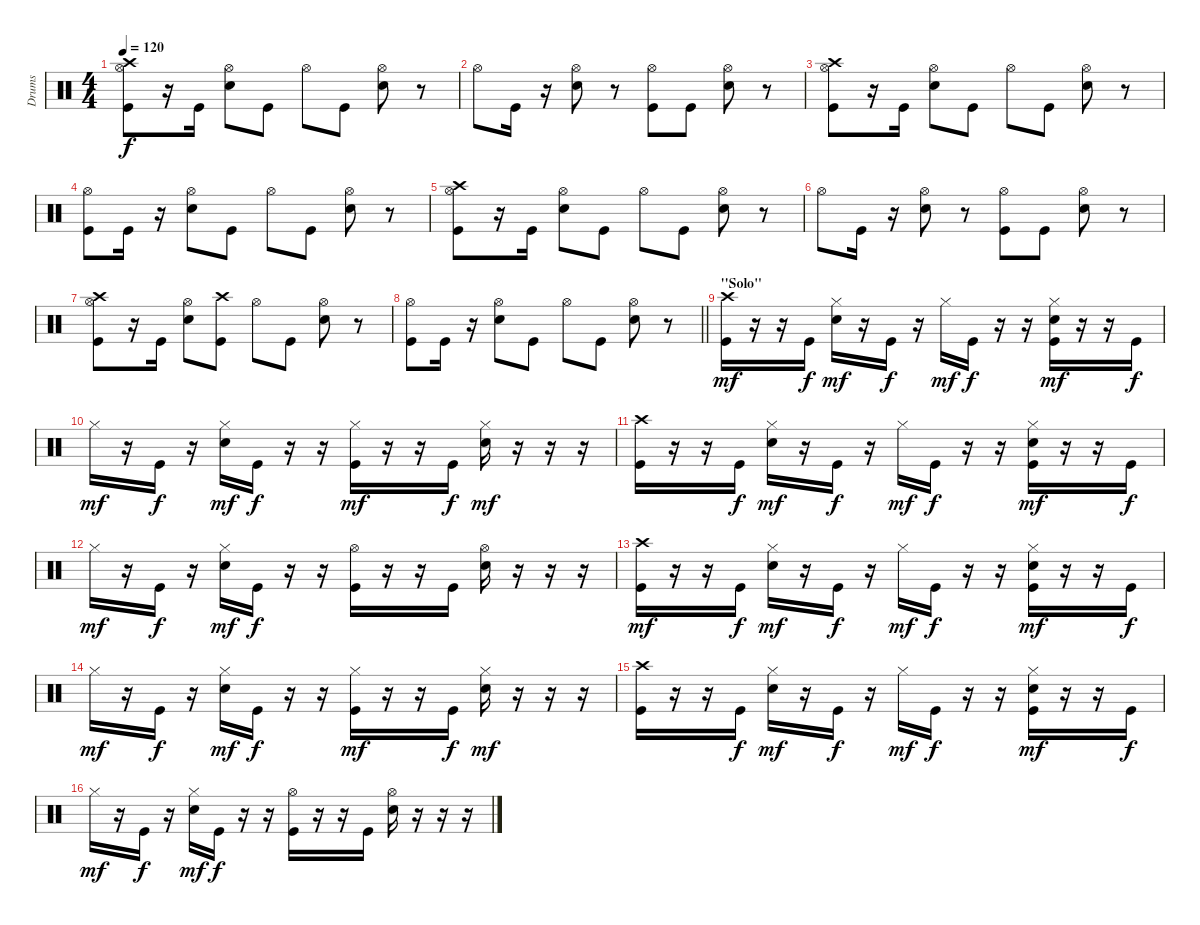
\track ("Drums" "Drums") {instrument percussion}
\staff {score}
\articulation defaults
\ts (4 4)
\tempo 120
\clef neutral
\ks c
("Kick (hit)" "Hi-Hat (open)" "Crash high (hit)").8{dy f} r.16 "Kick (hit)".16 ("Snare (hit) 2" "Hi-Hat (open)").8 "Kick (hit)".8 "Hi-Hat (open)".8 "Kick (hit)".8 ("Snare (hit) 2" "Hi-Hat (open)").8 r.8 |
"Hi-Hat (open)".8 "Kick (hit)".16 r.16 ("Snare (hit) 2" "Hi-Hat (open)").8 r.8 ("Kick (hit)" "Hi-Hat (open)").8 "Kick (hit)".8 ("Snare (hit) 2" "Hi-Hat (open)").8 r.8 |
("Kick (hit)" "Hi-Hat (open)" "Crash high (hit)").8 r.16 "Kick (hit)".16 ("Snare (hit) 2" "Hi-Hat (open)").8 "Kick (hit)".8 "Hi-Hat (open)".8 "Kick (hit)".8 ("Snare (hit) 2" "Hi-Hat (open)").8 r.8 |
("Kick (hit)" "Hi-Hat (open)").8 "Kick (hit)".16 r.16 ("Snare (hit) 2" "Hi-Hat (open)").8 "Kick (hit)".8 "Hi-Hat (open)".8 "Kick (hit)".8 ("Snare (hit) 2" "Hi-Hat (open)").8 r.8 |
("Kick (hit)" "Hi-Hat (open)" "Crash high (hit)").8 r.16 "Kick (hit)".16 ("Snare (hit) 2" "Hi-Hat (open)").8 "Kick (hit)".8 "Hi-Hat (open)".8 "Kick (hit)".8 ("Snare (hit) 2" "Hi-Hat (open)").8 r.8 |
"Hi-Hat (open)".8 "Kick (hit)".16 r.16 ("Snare (hit) 2" "Hi-Hat (open)").8 r.8 ("Kick (hit)" "Hi-Hat (open)").8 "Kick (hit)".8 ("Snare (hit) 2" "Hi-Hat (open)").8 r.8 |
("Kick (hit)" "Hi-Hat (open)" "Crash high (hit)").8 r.16 "Kick (hit)".16 ("Snare (hit) 2" "Hi-Hat (open)").8 ("Kick (hit)" "Crash high (hit)").8 "Hi-Hat (open)".8 "Kick (hit)".8 ("Snare (hit) 2" "Hi-Hat (open)").8 r.8 |
\barLineRight lightlight
("Kick (hit)" "Hi-Hat (open)").8 "Kick (hit)".16 r.16 ("Snare (hit) 2" "Hi-Hat (open)").8 "Kick (hit)".8 "Hi-Hat (open)".8 "Kick (hit)".8 ("Snare (hit) 2" "Hi-Hat (open)").8 r.8 |
\section ("" "''Solo''")
("Kick (hit)" "Crash high (hit)").16{dy mf} r.16 r.16 "Kick (hit)".16{dy f} ("Snare (hit) 2" "Hi-Hat (closed)").16{dy mf} r.16 "Kick (hit)".16{dy f} r.16 "Hi-Hat (closed)".16{dy mf} "Kick (hit)".16{dy f} r.16 r.16 ("Kick (hit)" "Snare (hit) 2" "Hi-Hat (closed)").16{dy mf} r.16 r.16 "Kick (hit)".16{dy f} |
"Hi-Hat (closed)".16{dy mf} r.16 "Kick (hit)".16{dy f} r.16 ("Snare (hit) 2" "Hi-Hat (closed)").16{dy mf} "Kick (hit)".16{dy f} r.16 r.16 ("Kick (hit)" "Hi-Hat (closed)").16{dy mf} r.16 r.16 "Kick (hit)".16{dy f} ("Snare (hit) 2" "Hi-Hat (closed)").16{dy mf} r.16 r.16 r.16 |
("Kick (hit)" "Crash high (hit)").16 r.16 r.16 "Kick (hit)".16{dy f} ("Snare (hit) 2" "Hi-Hat (closed)").16{dy mf} r.16 "Kick (hit)".16{dy f} r.16 "Hi-Hat (closed)".16{dy mf} "Kick (hit)".16{dy f} r.16 r.16 ("Kick (hit)" "Snare (hit) 2" "Hi-Hat (closed)").16{dy mf} r.16 r.16 "Kick (hit)".16{dy f} |
"Hi-Hat (closed)".16{dy mf} r.16 "Kick (hit)".16{dy f} r.16 ("Snare (hit) 2" "Hi-Hat (closed)").16{dy mf} "Kick (hit)".16{dy f} r.16 r.16 ("Kick (hit)" "Hi-Hat (open)").16 r.16 r.16 "Kick (hit)".16 ("Snare (hit) 2" "Hi-Hat (open)").16 r.16 r.16 r.16 |
("Kick (hit)" "Crash high (hit)").16{dy mf} r.16 r.16 "Kick (hit)".16{dy f} ("Snare (hit) 2" "Hi-Hat (closed)").16{dy mf} r.16 "Kick (hit)".16{dy f} r.16 "Hi-Hat (closed)".16{dy mf} "Kick (hit)".16{dy f} r.16 r.16 ("Kick (hit)" "Snare (hit) 2" "Hi-Hat (closed)").16{dy mf} r.16 r.16 "Kick (hit)".16{dy f} |
"Hi-Hat (closed)".16{dy mf} r.16 "Kick (hit)".16{dy f} r.16 ("Snare (hit) 2" "Hi-Hat (closed)").16{dy mf} "Kick (hit)".16{dy f} r.16 r.16 ("Kick (hit)" "Hi-Hat (closed)").16{dy mf} r.16 r.16 "Kick (hit)".16{dy f} ("Snare (hit) 2" "Hi-Hat (closed)").16{dy mf} r.16 r.16 r.16 |
("Kick (hit)" "Crash high (hit)").16 r.16 r.16 "Kick (hit)".16{dy f} ("Snare (hit) 2" "Hi-Hat (closed)").16{dy mf} r.16 "Kick (hit)".16{dy f} r.16 "Hi-Hat (closed)".16{dy mf} "Kick (hit)".16{dy f} r.16 r.16 ("Kick (hit)" "Snare (hit) 2" "Hi-Hat (closed)").16{dy mf} r.16 r.16 "Kick (hit)".16{dy f} |
"Hi-Hat (closed)".16{dy mf} r.16 "Kick (hit)".16{dy f} r.16 ("Snare (hit) 2" "Hi-Hat (closed)").16{dy mf} "Kick (hit)".16{dy f} r.16 r.16 ("Kick (hit)" "Hi-Hat (open)").16 r.16 r.16 "Kick (hit)".16 ("Snare (hit) 2" "Hi-Hat (open)").16 r.16 r.16 r.16
